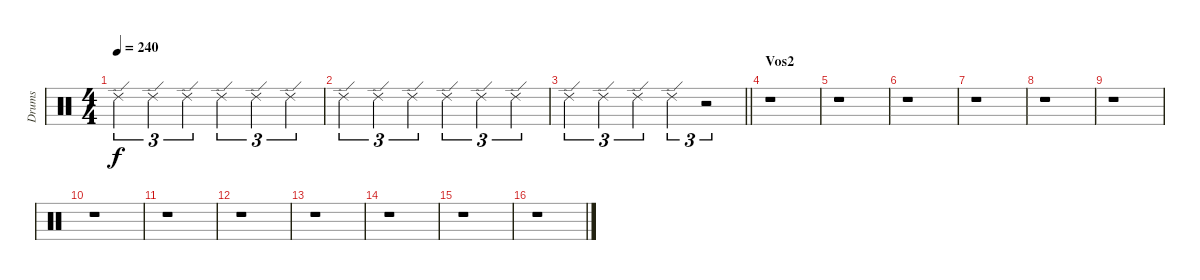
\track ("Drums" "Drums") {instrument percussion}
\staff {score}
\articulation defaults
\ts (4 4)
\tempo 240
\clef neutral
\ks c "Ride (edge) 2".4{tu (3 2) dy f} "Ride (edge) 2".4{tu (3 2)} "Ride (edge) 2".4{tu (3 2)} "Ride (edge) 2".4{tu (3 2)} "Ride (edge) 2".4{tu (3 2)} "Ride (edge) 2".4{tu (3 2)}
|
"Ride (edge) 2".4{tu (3 2)} "Ride (edge) 2".4{tu (3 2)} "Ride (edge) 2".4{tu (3 2)} "Ride (edge) 2".4{tu (3 2)} "Ride (edge) 2".4{tu (3 2)} "Ride (edge) 2".4{tu (3 2)} |
\barLineRight lightlight "Ride (edge) 2".4{tu (3 2)} "Ride (edge) 2".4{tu (3 2)} "Ride (edge) 2".4{tu (3 2)} "Ride (edge) 2".4{tu (3 2)}
r.2{tu (3 2)} |
\section ("" "Vos2")
r.1 |
r.1 |
r.1 |
r.1 |
r.1 |
r.1 |
r.1 |
r.1 |
r.1 |
r.1 |
r.1 |
r.1 |
r.1
